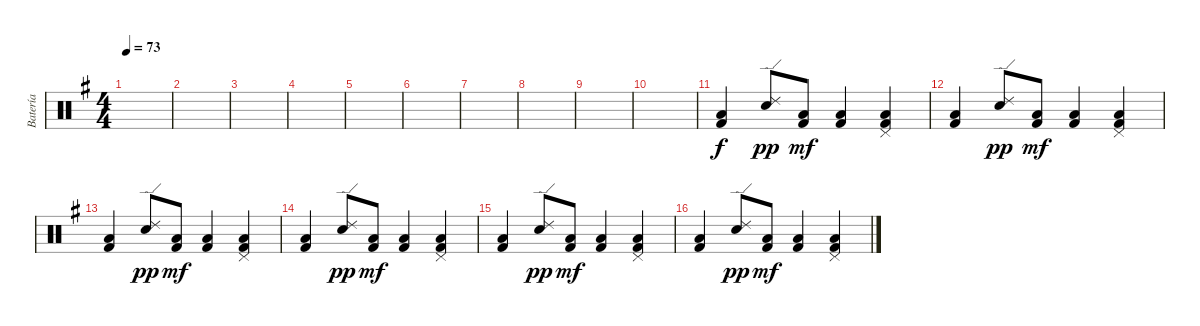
\track ("Batería" "Batería") {instrument percussion}
\staff {score}
\articulation defaults
\ts (4 4)
\tempo 73
\clef neutral
\ks eminor
|
|
|
|
|
|
|
|
|
|
("Low Floor Tom (hit)" "Kick (hit) 2").4 ("Electric Snare (hit)" "Ride (edge) 2").8{dy pp} ("Low Floor Tom (hit)" "Kick (hit) 2").8{dy mf} ("Low Floor Tom (hit)" "Kick (hit) 2").4 ("Pedal Hi-Hat (hit)" "Low Floor Tom (hit)" "Kick (hit) 2").4 |
("Low Floor Tom (hit)" "Kick (hit) 2").4 ("Electric Snare (hit)" "Ride (edge) 2").8{dy pp} ("Low Floor Tom (hit)" "Kick (hit) 2").8{dy mf} ("Low Floor Tom (hit)" "Kick (hit) 2").4 ("Pedal Hi-Hat (hit)" "Low Floor Tom (hit)" "Kick (hit) 2").4 |
("Low Floor Tom (hit)" "Kick (hit) 2").4 ("Electric Snare (hit)" "Ride (edge) 2").8{dy pp} ("Low Floor Tom (hit)" "Kick (hit) 2").8{dy mf} ("Low Floor Tom (hit)" "Kick (hit) 2").4 ("Pedal Hi-Hat (hit)" "Low Floor Tom (hit)" "Kick (hit) 2").4 |
("Low Floor Tom (hit)" "Kick (hit) 2").4 ("Electric Snare (hit)" "Ride (edge) 2").8{dy pp} ("Low Floor Tom (hit)" "Kick (hit) 2").8{dy mf} ("Low Floor Tom (hit)" "Kick (hit) 2").4 ("Pedal Hi-Hat (hit)" "Low Floor Tom (hit)" "Kick (hit) 2").4 |
("Low Floor Tom (hit)" "Kick (hit) 2").4 ("Electric Snare (hit)" "Ride (edge) 2").8{dy pp} ("Low Floor Tom (hit)" "Kick (hit) 2").8{dy mf} ("Low Floor Tom (hit)" "Kick (hit) 2").4 ("Pedal Hi-Hat (hit)" "Low Floor Tom (hit)" "Kick (hit) 2").4 |
("Low Floor Tom (hit)" "Kick (hit) 2").4 ("Electric Snare (hit)" "Ride (edge) 2").8{dy pp} ("Low Floor Tom (hit)" "Kick (hit) 2").8{dy mf} ("Low Floor Tom (hit)" "Kick (hit) 2").4 ("Pedal Hi-Hat (hit)" "Low Floor Tom (hit)" "Kick (hit) 2").4
